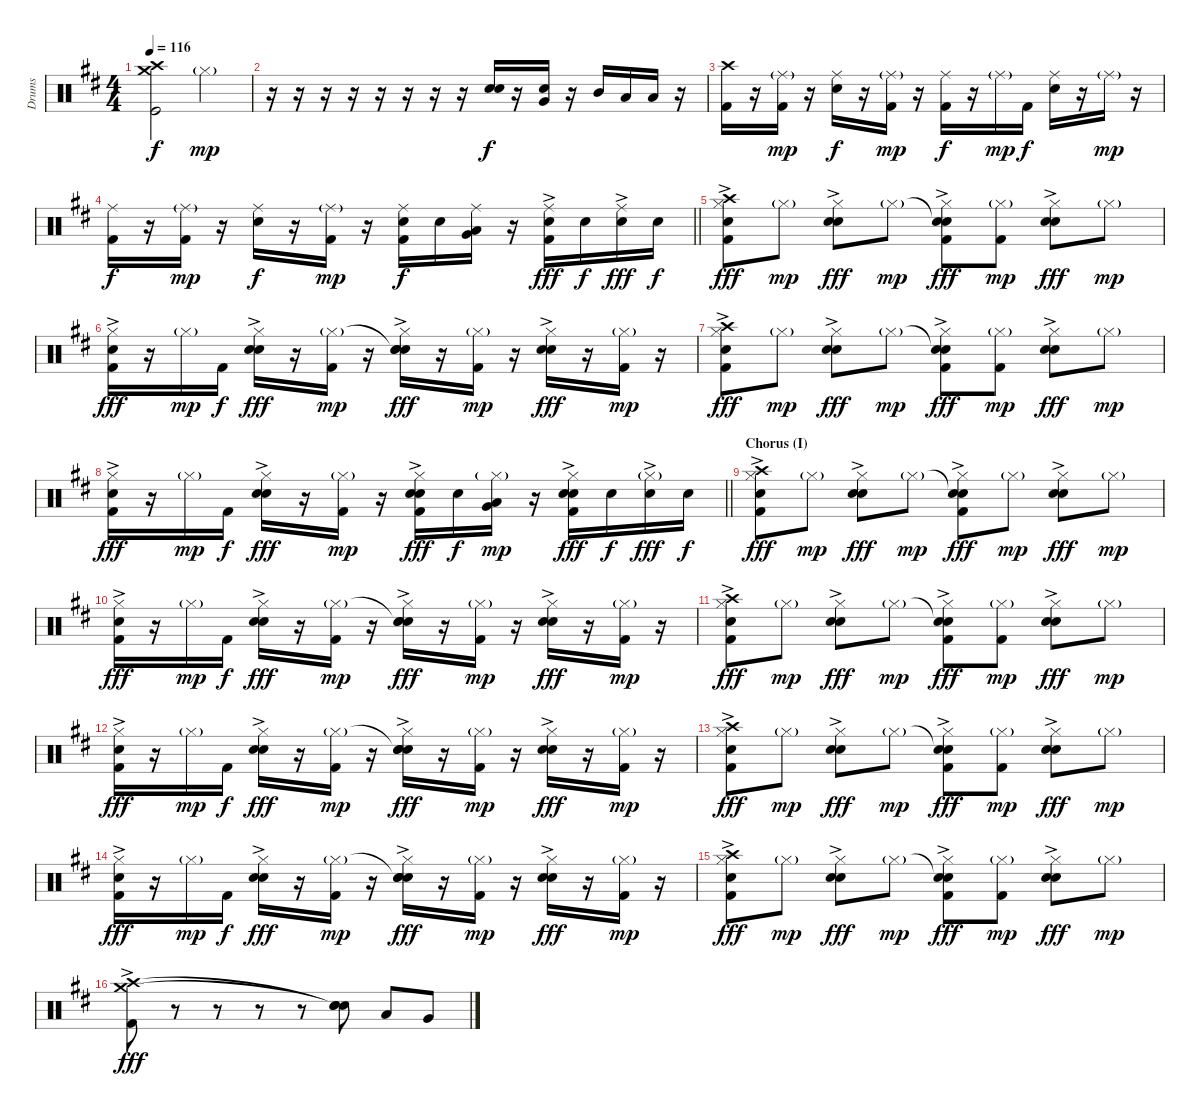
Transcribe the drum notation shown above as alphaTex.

\track ("Drums" "Drums") {instrument percussion}
\staff {score}
\articulation defaults
\ts (4 4)
\tempo 116
\clef neutral
\ks d
("Crash medium (hit)" "Crash high (hit)" "Kick (hit)").2{dy f} "Hi-Hat (closed)"{g}.2{dy mp} |
r.16 r.16 r.16 r.16 r.16 r.16 r.16 r.16 ("Electric Snare (hit)" "Snare (hit) 2").16{dy f} r.16 ("Electric Snare (hit)" "Very Low Tom (hit)").16 r.16 "Mid Tom (hit)".16 "Low Tom (hit)".16 "Low Tom (hit)".16 r.16 |
("Crash high (hit)" "Kick (hit) 2").16 r.16 ("Ride (middle)"{g} "Kick (hit) 2").16{dy mp} r.16 ("Ride (middle)" "Snare (hit) 2").16{dy f} r.16 ("Ride (middle)"{g} "Kick (hit) 2").16{dy mp} r.16 ("Ride (middle)" "Kick (hit) 2").16{dy f} r.16 "Ride (middle)"{g}.16{dy mp} "Kick (hit) 2".16{dy f} ("Ride (middle)" "Snare (hit) 2").16 r.16 "Ride (middle)"{g}.16{dy mp} r.16 |
\barLineRight lightlight
("Ride (middle)" "Kick (hit) 2").16{dy f} r.16 ("Ride (middle)"{g} "Kick (hit) 2").16{dy mp} r.16 ("Ride (middle)" "Snare (hit) 2").16{dy f} r.16 ("Ride (middle)"{g} "Kick (hit) 2").16{dy mp} r.16 ("Ride (middle)" "Snare (hit) 2" "Kick (hit) 2").16{dy f} "Snare (hit) 2".16 ("Ride (middle)" "Low Tom (hit)" "Very Low Tom (hit)").16 r.16 ("Ride (middle)" "Snare (hit) 2"{ac} "Kick (hit) 2").16{dy fff} "Snare (hit) 2".16{dy f} ("Ride (middle)" "Snare (hit) 2"{ac}).16{dy fff} "Snare (hit) 2".16{dy f} |
("Crash high (hit)" "Hi-Hat (closed)" "Hand Clap (hit)"{ac} "Kick (hit) 2").8{dy fff} "Hi-Hat (closed)"{g}.8{dy mp} ("Hi-Hat (closed)" "Hand Clap (hit)"{ac} "Snare (hit) 2").8{dy fff} "Hi-Hat (closed)"{g}.8{dy mp} ("Snare (hit)"{t} "Hi-Hat (closed)" "Hand Clap (hit)"{ac} "Kick (hit) 2").8{dy fff} ("Hi-Hat (closed)"{g} "Kick (hit) 2").8{dy mp} ("Hi-Hat (closed)" "Hand Clap (hit)"{ac} "Snare (hit) 2").8{dy fff} "Hi-Hat (closed)"{g}.8{dy mp} |
("Hi-Hat (closed)" "Hand Clap (hit)"{ac} "Kick (hit) 2").16{dy fff} r.16 "Hi-Hat (closed)"{g}.16{dy mp} "Kick (hit) 2".16{dy f} ("Hi-Hat (closed)" "Hand Clap (hit)"{ac} "Snare (hit) 2").16{dy fff} r.16 ("Hi-Hat (closed)"{g} "Kick (hit) 2").16{dy mp} r.16 ("Snare (hit)"{t} "Hi-Hat (closed)" "Hand Clap (hit)"{ac} "Snare (hit) 2").16{dy fff} r.16 ("Hi-Hat (closed)"{g} "Kick (hit) 2").16{dy mp} r.16 ("Hi-Hat (closed)" "Hand Clap (hit)"{ac} "Snare (hit) 2").16{dy fff} r.16 ("Hi-Hat (closed)"{g} "Kick (hit) 2").16{dy mp} r.16 |
("Crash high (hit)" "Hi-Hat (closed)" "Hand Clap (hit)"{ac} "Kick (hit) 2").8{dy fff} "Hi-Hat (closed)"{g}.8{dy mp} ("Hi-Hat (closed)" "Hand Clap (hit)"{ac} "Snare (hit) 2").8{dy fff} "Hi-Hat (closed)"{g}.8{dy mp} ("Snare (hit)"{t} "Hi-Hat (closed)" "Hand Clap (hit)"{ac} "Kick (hit) 2").8{dy fff} ("Hi-Hat (closed)"{g} "Kick (hit) 2").8{dy mp} ("Hi-Hat (closed)" "Hand Clap (hit)"{ac} "Snare (hit) 2").8{dy fff} "Hi-Hat (closed)"{g}.8{dy mp} |
\barLineRight lightlight
("Hi-Hat (closed)" "Hand Clap (hit)"{ac} "Kick (hit) 2").16{dy fff} r.16 "Hi-Hat (closed)"{g}.16{dy mp} "Kick (hit) 2".16{dy f} ("Hi-Hat (closed)" "Hand Clap (hit)"{ac} "Snare (hit) 2").16{dy fff} r.16 ("Hi-Hat (closed)"{g} "Kick (hit) 2").16{dy mp} r.16 ("Hi-Hat (closed)" "Hand Clap (hit)"{ac} "Snare (hit) 2" "Kick (hit) 2").16{dy fff} "Snare (hit) 2".16{dy f} ("Hi-Hat (closed)"{g} "Low Tom (hit)" "Very Low Tom (hit)").16{dy mp} r.16 ("Hi-Hat (closed)" "Hand Clap (hit)"{ac} "Snare (hit) 2"{ac} "Kick (hit) 2").16{dy fff} "Snare (hit) 2".16{dy f} ("Hi-Hat (closed)"{g} "Snare (hit) 2"{ac}).16{dy fff} "Snare (hit) 2".16{dy f} |
\section ("" "Chorus (I)")
("Crash high (hit)" "Hi-Hat (closed)" "Hand Clap (hit)"{ac} "Kick (hit) 2").8{dy fff} "Hi-Hat (closed)"{g}.8{dy mp} ("Hi-Hat (closed)" "Hand Clap (hit)"{ac} "Snare (hit) 2").8{dy fff} "Hi-Hat (closed)"{g}.8{dy mp} ("Snare (hit)"{t} "Hi-Hat (closed)" "Hand Clap (hit)"{ac} "Kick (hit) 2").8{dy fff} "Hi-Hat (closed)"{g}.8{dy mp} ("Hi-Hat (closed)" "Hand Clap (hit)"{ac} "Snare (hit) 2").8{dy fff} "Hi-Hat (closed)"{g}.8{dy mp} |
("Hi-Hat (closed)" "Hand Clap (hit)"{ac} "Kick (hit) 2").16{dy fff} r.16 "Hi-Hat (closed)"{g}.16{dy mp} "Kick (hit) 2".16{dy f} ("Hi-Hat (closed)" "Hand Clap (hit)"{ac} "Snare (hit) 2").16{dy fff} r.16 ("Hi-Hat (closed)"{g} "Kick (hit) 2").16{dy mp} r.16 ("Snare (hit)"{t} "Hi-Hat (closed)" "Hand Clap (hit)"{ac} "Snare (hit) 2").16{dy fff} r.16 ("Hi-Hat (closed)"{g} "Kick (hit) 2").16{dy mp} r.16 ("Hi-Hat (closed)" "Hand Clap (hit)"{ac} "Snare (hit) 2").16{dy fff} r.16 ("Hi-Hat (closed)"{g} "Kick (hit) 2").16{dy mp} r.16 |
("Crash high (hit)" "Hi-Hat (closed)" "Hand Clap (hit)"{ac} "Kick (hit) 2").8{dy fff} "Hi-Hat (closed)"{g}.8{dy mp} ("Hi-Hat (closed)" "Hand Clap (hit)"{ac} "Snare (hit) 2").8{dy fff} "Hi-Hat (closed)"{g}.8{dy mp} ("Snare (hit)"{t} "Hi-Hat (closed)" "Hand Clap (hit)"{ac} "Kick (hit) 2").8{dy fff} ("Hi-Hat (closed)"{g} "Kick (hit) 2").8{dy mp} ("Hi-Hat (closed)" "Hand Clap (hit)"{ac} "Snare (hit) 2").8{dy fff} "Hi-Hat (closed)"{g}.8{dy mp} |
("Hi-Hat (closed)" "Hand Clap (hit)"{ac} "Kick (hit) 2").16{dy fff} r.16 "Hi-Hat (closed)"{g}.16{dy mp} "Kick (hit) 2".16{dy f} ("Hi-Hat (closed)" "Hand Clap (hit)"{ac} "Snare (hit) 2").16{dy fff} r.16 ("Hi-Hat (closed)"{g} "Kick (hit) 2").16{dy mp} r.16 ("Snare (hit)"{t} "Hi-Hat (closed)" "Hand Clap (hit)"{ac} "Snare (hit) 2").16{dy fff} r.16 ("Hi-Hat (closed)"{g} "Kick (hit) 2").16{dy mp} r.16 ("Hi-Hat (closed)" "Hand Clap (hit)"{ac} "Snare (hit) 2").16{dy fff} r.16 ("Hi-Hat (closed)"{g} "Kick (hit) 2").16{dy mp} r.16 |
("Crash high (hit)" "Hi-Hat (closed)" "Hand Clap (hit)"{ac} "Kick (hit) 2").8{dy fff} "Hi-Hat (closed)"{g}.8{dy mp} ("Hi-Hat (closed)" "Hand Clap (hit)"{ac} "Snare (hit) 2").8{dy fff} "Hi-Hat (closed)"{g}.8{dy mp} ("Snare (hit)"{t} "Hi-Hat (closed)" "Hand Clap (hit)"{ac} "Kick (hit) 2").8{dy fff} ("Hi-Hat (closed)"{g} "Kick (hit) 2").8{dy mp} ("Hi-Hat (closed)" "Hand Clap (hit)"{ac} "Snare (hit) 2").8{dy fff} "Hi-Hat (closed)"{g}.8{dy mp} |
("Hi-Hat (closed)" "Hand Clap (hit)"{ac} "Kick (hit) 2").16{dy fff} r.16 "Hi-Hat (closed)"{g}.16{dy mp} "Kick (hit) 2".16{dy f} ("Hi-Hat (closed)" "Hand Clap (hit)"{ac} "Snare (hit) 2").16{dy fff} r.16 ("Hi-Hat (closed)"{g} "Kick (hit) 2").16{dy mp} r.16 ("Snare (hit)"{t} "Hi-Hat (closed)" "Hand Clap (hit)"{ac} "Snare (hit) 2").16{dy fff} r.16 ("Hi-Hat (closed)"{g} "Kick (hit) 2").16{dy mp} r.16 ("Hi-Hat (closed)" "Hand Clap (hit)"{ac} "Snare (hit) 2").16{dy fff} r.16 ("Hi-Hat (closed)"{g} "Kick (hit) 2").16{dy mp} r.16 |
("Crash high (hit)" "Hi-Hat (closed)" "Hand Clap (hit)"{ac} "Kick (hit) 2").8{dy fff} "Hi-Hat (closed)"{g}.8{dy mp} ("Hi-Hat (closed)" "Hand Clap (hit)"{ac} "Snare (hit) 2").8{dy fff} "Hi-Hat (closed)"{g}.8{dy mp} ("Snare (hit)"{t} "Hi-Hat (closed)" "Hand Clap (hit)"{ac} "Kick (hit) 2").8{dy fff} ("Hi-Hat (closed)"{g} "Kick (hit) 2").8{dy mp} ("Hi-Hat (closed)" "Hand Clap (hit)"{ac} "Snare (hit) 2").8{dy fff} "Hi-Hat (closed)"{g}.8{dy mp} |
("Crash high (hit)"{ac} "Crash medium (hit)"{ac} "Kick (hit) 2").8{dy fff} r.8 r.8 r.8 r.8 ("Snare (hit)"{t} "Snare (hit)"{t} "Snare (hit) 2").8 "Low Tom (hit)".8 "Very Low Tom (hit)".8
